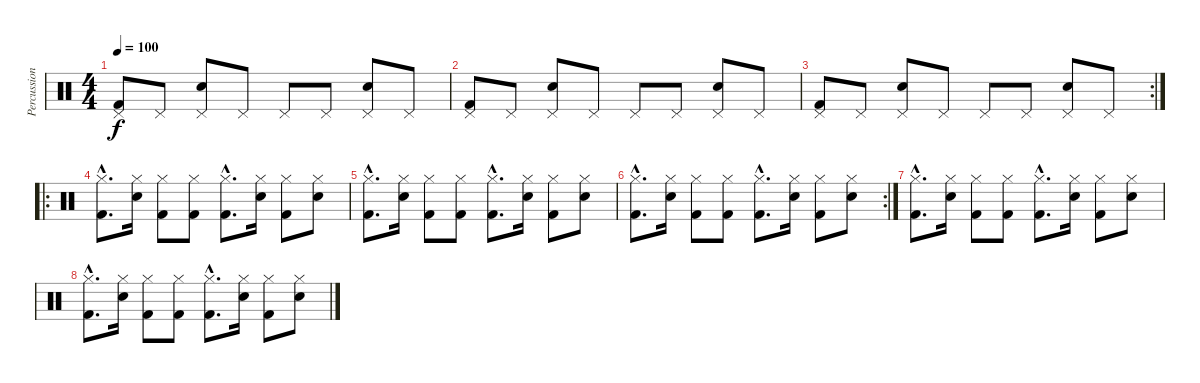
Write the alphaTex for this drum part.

\track ("Percussions" "Percussion") {instrument percussion}
\staff {score}
\articulation defaults
\ts (4 4)
\tempo 100
\clef neutral
\ks c
("Kick (hit) 2" "Pedal Hi-Hat (hit)").8{dy f} "Pedal Hi-Hat (hit)".8 ("Electric Snare (hit)" "Pedal Hi-Hat (hit)").8 "Pedal Hi-Hat (hit)".8 "Pedal Hi-Hat (hit)".8 "Pedal Hi-Hat (hit)".8 ("Electric Snare (hit)" "Pedal Hi-Hat (hit)").8 "Pedal Hi-Hat (hit)".8 |
("Kick (hit) 2" "Pedal Hi-Hat (hit)").8 "Pedal Hi-Hat (hit)".8 ("Electric Snare (hit)" "Pedal Hi-Hat (hit)").8 "Pedal Hi-Hat (hit)".8 "Pedal Hi-Hat (hit)".8 "Pedal Hi-Hat (hit)".8 ("Electric Snare (hit)" "Pedal Hi-Hat (hit)").8 "Pedal Hi-Hat (hit)".8 |
\rc 2
("Kick (hit) 2" "Pedal Hi-Hat (hit)").8 "Pedal Hi-Hat (hit)".8 ("Electric Snare (hit)" "Pedal Hi-Hat (hit)").8 "Pedal Hi-Hat (hit)".8 "Pedal Hi-Hat (hit)".8 "Pedal Hi-Hat (hit)".8 ("Electric Snare (hit)" "Pedal Hi-Hat (hit)").8 "Pedal Hi-Hat (hit)".8 |
\ro
("Hi-Hat (closed)"{hac} "Kick (hit) 2"{hac}).8{d} ("Hi-Hat (closed)" "Electric Snare (hit)").16 ("Hi-Hat (closed)" "Kick (hit) 2").8 ("Hi-Hat (closed)" "Kick (hit) 2").8 ("Hi-Hat (closed)"{hac} "Kick (hit) 2"{hac}).8{d} ("Hi-Hat (closed)" "Electric Snare (hit)").16 ("Hi-Hat (closed)" "Kick (hit) 2").8 ("Hi-Hat (closed)" "Electric Snare (hit)").8 |
("Hi-Hat (closed)"{hac} "Kick (hit) 2"{hac}).8{d} ("Hi-Hat (closed)" "Electric Snare (hit)").16 ("Hi-Hat (closed)" "Kick (hit) 2").8 ("Hi-Hat (closed)" "Kick (hit) 2").8 ("Hi-Hat (closed)"{hac} "Kick (hit) 2"{hac}).8{d} ("Hi-Hat (closed)" "Electric Snare (hit)").16 ("Hi-Hat (closed)" "Kick (hit) 2").8 ("Hi-Hat (closed)" "Electric Snare (hit)").8 |
\rc 2
("Hi-Hat (closed)"{hac} "Kick (hit) 2"{hac}).8{d} ("Hi-Hat (closed)" "Electric Snare (hit)").16 ("Hi-Hat (closed)" "Kick (hit) 2").8 ("Hi-Hat (closed)" "Kick (hit) 2").8 ("Hi-Hat (closed)"{hac} "Kick (hit) 2"{hac}).8{d} ("Hi-Hat (closed)" "Electric Snare (hit)").16 ("Hi-Hat (closed)" "Kick (hit) 2").8 ("Hi-Hat (closed)" "Electric Snare (hit)").8 |
("Hi-Hat (closed)"{hac} "Kick (hit) 2"{hac}).8{d} ("Hi-Hat (closed)" "Electric Snare (hit)").16 ("Hi-Hat (closed)" "Kick (hit) 2").8 ("Hi-Hat (closed)" "Kick (hit) 2").8 ("Hi-Hat (closed)"{hac} "Kick (hit) 2"{hac}).8{d} ("Hi-Hat (closed)" "Electric Snare (hit)").16 ("Hi-Hat (closed)" "Kick (hit) 2").8 ("Hi-Hat (closed)" "Electric Snare (hit)").8 |
("Hi-Hat (closed)"{hac} "Kick (hit) 2"{hac}).8{d} ("Hi-Hat (closed)" "Electric Snare (hit)").16 ("Hi-Hat (closed)" "Kick (hit) 2").8 ("Hi-Hat (closed)" "Kick (hit) 2").8 ("Hi-Hat (closed)"{hac} "Kick (hit) 2"{hac}).8{d} ("Hi-Hat (closed)" "Electric Snare (hit)").16 ("Hi-Hat (closed)" "Kick (hit) 2").8 ("Hi-Hat (closed)" "Electric Snare (hit)").8
